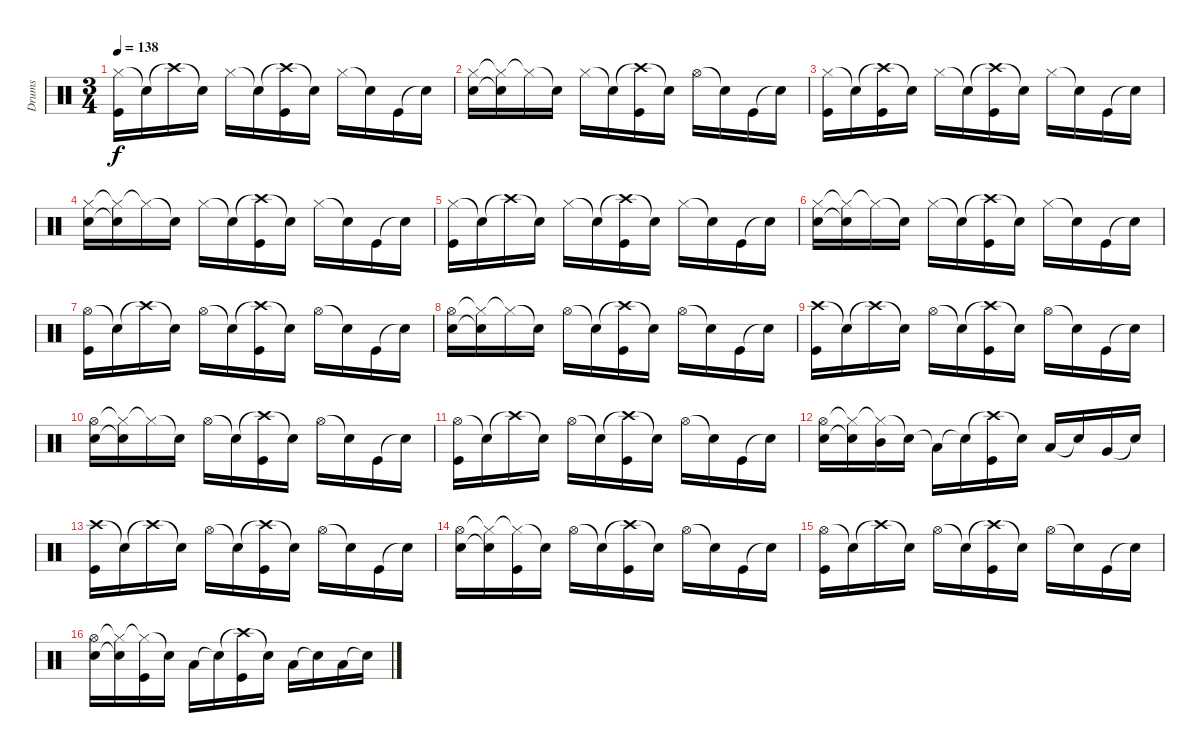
\track ("Drums" "Drums") {instrument percussion}
\staff {score}
\articulation defaults
\ts (3 4)
\tempo 138
\clef neutral
\ks c
("Hi-Hat (closed)" "Kick (hit)").16{dy f} "Snare (hit)"{t}.16 "Crash high (hit)"{t}.16 "Snare (hit)"{t}.16 "Hi-Hat (closed)".16 "Snare (hit)"{t}.16 ("Crash high (hit)"{t} "Kick (hit)").16 "Snare (hit)"{t}.16 "Hi-Hat (closed)".16 "Snare (hit)"{t}.16 "Kick (hit)".16 "Snare (hit)"{t}.16 |
("Hi-Hat (closed)" "Electric Snare (hit)").16 ("Hi-Hat (closed)"{t} "Snare (hit)"{t}).16 "Hi-Hat (closed)"{t}.16 "Snare (hit)"{t}.16 "Hi-Hat (closed)".16 "Snare (hit)"{t}.16 ("Crash high (hit)"{t} "Kick (hit)").16 "Snare (hit)"{t}.16 "Hi-Hat (open)".16 "Snare (hit)"{t}.16 "Kick (hit)".16 "Snare (hit)"{t}.16 |
("Hi-Hat (closed)" "Kick (hit)").16 "Snare (hit)"{t}.16 ("Crash high (hit)"{t} "Kick (hit)").16 "Snare (hit)"{t}.16 "Hi-Hat (closed)".16 "Snare (hit)"{t}.16 ("Crash high (hit)"{t} "Kick (hit)").16 "Snare (hit)"{t}.16 "Hi-Hat (closed)".16 "Snare (hit)"{t}.16 "Kick (hit)".16 "Snare (hit)"{t}.16 |
("Hi-Hat (closed)" "Electric Snare (hit)").16 ("Hi-Hat (closed)"{t} "Snare (hit)"{t}).16 "Hi-Hat (closed)"{t}.16 "Snare (hit)"{t}.16 "Hi-Hat (closed)".16 "Snare (hit)"{t}.16 ("Crash high (hit)"{t} "Kick (hit)").16 "Snare (hit)"{t}.16 "Hi-Hat (closed)".16 "Snare (hit)"{t}.16 "Kick (hit)".16 "Snare (hit)"{t}.16 |
("Hi-Hat (closed)" "Kick (hit)").16 "Snare (hit)"{t}.16 "Crash high (hit)"{t}.16 "Snare (hit)"{t}.16 "Hi-Hat (closed)".16 "Snare (hit)"{t}.16 ("Crash high (hit)"{t} "Kick (hit)").16 "Snare (hit)"{t}.16 "Hi-Hat (closed)".16 "Snare (hit)"{t}.16 "Kick (hit)".16 "Snare (hit)"{t}.16 |
("Hi-Hat (closed)" "Electric Snare (hit)").16 ("Hi-Hat (closed)"{t} "Snare (hit)"{t}).16 "Hi-Hat (closed)"{t}.16 "Snare (hit)"{t}.16 "Hi-Hat (closed)".16 "Snare (hit)"{t}.16 ("Crash high (hit)"{t} "Kick (hit)").16 "Snare (hit)"{t}.16 "Hi-Hat (closed)".16 "Snare (hit)"{t}.16 "Kick (hit)".16 "Snare (hit)"{t}.16 |
("Hi-Hat (open)" "Kick (hit)").16 "Snare (hit)"{t}.16 "Crash high (hit)"{t}.16 "Snare (hit)"{t}.16 "Hi-Hat (open)".16 "Snare (hit)"{t}.16 ("Crash high (hit)"{t} "Kick (hit)").16 "Snare (hit)"{t}.16 "Hi-Hat (open)".16 "Snare (hit)"{t}.16 "Kick (hit)".16 "Snare (hit)"{t}.16 |
("Hi-Hat (open)" "Electric Snare (hit)").16 ("Hi-Hat (closed)"{t} "Snare (hit)"{t}).16 "Hi-Hat (closed)"{t}.16 "Snare (hit)"{t}.16 "Hi-Hat (open)".16 "Snare (hit)"{t}.16 ("Crash high (hit)"{t} "Kick (hit)").16 "Snare (hit)"{t}.16 "Hi-Hat (open)".16 "Snare (hit)"{t}.16 "Kick (hit)".16 "Snare (hit)"{t}.16 |
("Crash high (hit)" "Kick (hit)").16 "Snare (hit)"{t}.16 "Crash high (hit)"{t}.16 "Snare (hit)"{t}.16 "Hi-Hat (open)".16 "Snare (hit)"{t}.16 ("Crash high (hit)"{t} "Kick (hit)").16 "Snare (hit)"{t}.16 "Hi-Hat (open)".16 "Snare (hit)"{t}.16 "Kick (hit)".16 "Snare (hit)"{t}.16 |
("Hi-Hat (open)" "Electric Snare (hit)").16 ("Hi-Hat (closed)"{t} "Snare (hit)"{t}).16 "Hi-Hat (closed)"{t}.16 "Snare (hit)"{t}.16 "Hi-Hat (open)".16 "Snare (hit)"{t}.16 ("Crash high (hit)"{t} "Kick (hit)").16 "Snare (hit)"{t}.16 "Hi-Hat (open)".16 "Snare (hit)"{t}.16 "Kick (hit)".16 "Snare (hit)"{t}.16 |
("Hi-Hat (open)" "Kick (hit)").16 "Snare (hit)"{t}.16 "Crash high (hit)"{t}.16 "Snare (hit)"{t}.16 "Hi-Hat (open)".16 "Snare (hit)"{t}.16 ("Crash high (hit)"{t} "Kick (hit)").16 "Snare (hit)"{t}.16 "Hi-Hat (open)".16 "Snare (hit)"{t}.16 "Kick (hit)".16 "Snare (hit)"{t}.16 |
("Hi-Hat (open)" "Electric Snare (hit)").16 ("Hi-Hat (closed)"{t} "Snare (hit)"{t}).16 ("Hi-Hat (closed)"{t} "Mid Tom (hit)").16 "Snare (hit)"{t}.16 "Low Tom (hit)"{t}.16 "Snare (hit)"{t}.16 ("Crash high (hit)"{t} "Kick (hit)").16 "Snare (hit)"{t}.16 "Low Tom (hit)".16 "Snare (hit)"{t}.16 "Very Low Tom (hit)".16 "Snare (hit)"{t}.16 |
("Crash high (hit)" "Kick (hit)").16 "Snare (hit)"{t}.16 "Crash high (hit)"{t}.16 "Snare (hit)"{t}.16 "Hi-Hat (open)".16 "Snare (hit)"{t}.16 ("Crash high (hit)"{t} "Kick (hit)").16 "Snare (hit)"{t}.16 "Hi-Hat (open)".16 "Snare (hit)"{t}.16 "Kick (hit)".16 "Snare (hit)"{t}.16 |
("Hi-Hat (open)" "Electric Snare (hit)").16 ("Hi-Hat (closed)"{t} "Snare (hit)"{t}).16 ("Hi-Hat (closed)"{t} "Kick (hit)").16 "Snare (hit)"{t}.16 "Hi-Hat (open)".16 "Snare (hit)"{t}.16 ("Crash high (hit)"{t} "Kick (hit)").16 "Snare (hit)"{t}.16 "Hi-Hat (open)".16 "Snare (hit)"{t}.16 "Kick (hit)".16 "Snare (hit)"{t}.16 |
("Hi-Hat (open)" "Kick (hit)").16 "Snare (hit)"{t}.16 "Crash high (hit)"{t}.16 "Snare (hit)"{t}.16 "Hi-Hat (open)".16 "Snare (hit)"{t}.16 ("Crash high (hit)"{t} "Kick (hit)").16 "Snare (hit)"{t}.16 "Hi-Hat (open)".16 "Snare (hit)"{t}.16 "Kick (hit)".16 "Snare (hit)"{t}.16 |
("Hi-Hat (open)" "Electric Snare (hit)").16 ("Hi-Hat (closed)"{t} "Snare (hit)"{t}).16 ("Hi-Hat (closed)"{t} "Kick (hit)").16 "Snare (hit)"{t}.16 "Low Tom (hit)".16 "Snare (hit)"{t}.16 ("Crash high (hit)"{t} "Kick (hit)").16 "Snare (hit)"{t}.16 "Low Floor Tom (hit)".16 "Snare (hit)"{t}.16 "Low Floor Tom (hit)".16 "Snare (hit)"{t}.16
